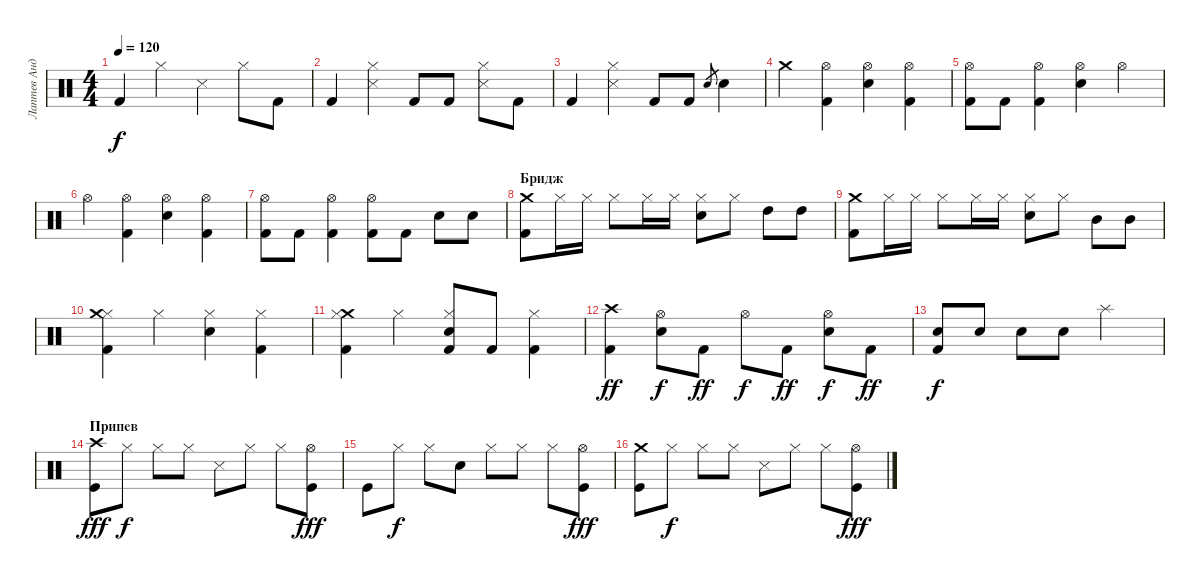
\track ("Лаптев Андрей" "Лаптев Анд") {instrument percussion}
\staff {score}
\articulation defaults
\ts (4 4)
\tempo 120
\clef neutral
\ks c "Kick (hit) 2".4{dy f} "Hi-Hat (closed)".4 "Snare (side stick) 3".4 "Hi-Hat (closed)".8 "Kick (hit) 2".8
|
"Kick (hit) 2".4 ("Snare (side stick) 3" "Hi-Hat (closed)").4 "Kick (hit) 2".8 "Kick (hit) 2".8 ("Snare (side stick) 3" "Hi-Hat (closed)").8 "Kick (hit) 2".8 |
"Kick (hit) 2".4 ("Snare (side stick) 3" "Hi-Hat (closed)").4 "Kick (hit) 2".8 "Kick (hit) 2".8 "Electric Snare (hit)".8{gr} "Electric Snare (hit)".4 |
"Crash medium (hit)".4 ("Hi-Hat (open)" "Kick (hit) 2").4 ("Hi-Hat (open)" "Electric Snare (hit)").4 ("Hi-Hat (open)" "Kick (hit) 2").4 |
("Hi-Hat (open)" "Kick (hit) 2").8 "Kick (hit) 2".8 ("Hi-Hat (open)" "Kick (hit) 2").4 ("Hi-Hat (open)" "Electric Snare (hit)").4 "Hi-Hat (open)".4 |
"Hi-Hat (open)".4 ("Hi-Hat (open)" "Kick (hit) 2").4 ("Hi-Hat (open)" "Electric Snare (hit)").4 ("Hi-Hat (open)" "Kick (hit) 2").4 |
("Hi-Hat (open)" "Kick (hit) 2").8 "Kick (hit) 2".8 ("Hi-Hat (open)" "Kick (hit) 2").4 ("Hi-Hat (open)" "Kick (hit) 2").8 "Kick (hit) 2".8 "Electric Snare (hit)".8 "Electric Snare (hit)".8 |
\section ("" "Бридж")
("Crash medium (hit)" "Kick (hit) 2").8 "Hi-Hat (closed)".16 "Hi-Hat (closed)".16 "Hi-Hat (closed)".8 "Hi-Hat (closed)".16 "Hi-Hat (closed)".16 ("Hi-Hat (closed)" "Electric Snare (hit)").8 "Hi-Hat (closed)".8 "High Tom (hit)".8 "High Tom (hit)".8 |
("Crash medium (hit)" "Kick (hit) 2").8 "Hi-Hat (closed)".16 "Hi-Hat (closed)".16 "Hi-Hat (closed)".8 "Hi-Hat (closed)".16 "Hi-Hat (closed)".16 ("Hi-Hat (closed)" "Electric Snare (hit)").8 "Hi-Hat (closed)".8 "Mid Tom (hit)".8 "Mid Tom (hit)".8 |
("Hi-Hat (closed)" "Crash medium (hit)" "Kick (hit) 2").4 "Hi-Hat (closed)".4 ("Hi-Hat (closed)" "Electric Snare (hit)").4 ("Kick (hit) 2" "Hi-Hat (closed)").4 |
("Crash medium (hit)" "Kick (hit) 2" "Hi-Hat (closed)").4 "Hi-Hat (closed)".4 ("Hi-Hat (closed)" "Electric Snare (hit)" "Kick (hit) 2").8 "Kick (hit) 2".8 ("Kick (hit) 2" "Hi-Hat (closed)").4 |
("Crash high (hit)" "Kick (hit) 2").4{dy ff} ("Hi-Hat (open)" "Electric Snare (hit)").8{dy f} "Kick (hit) 2".8{dy ff} "Hi-Hat (open)".8{dy f} "Kick (hit) 2".8{dy ff} ("Hi-Hat (open)" "Electric Snare (hit)").8{dy f} "Kick (hit) 2".8{dy ff} |
("Electric Snare (hit)" "Kick (hit) 2").8{dy f} "Electric Snare (hit)".8 "Electric Snare (hit)".8 "Electric Snare (hit)".8 "Splash (hit)".2 |
\section ("" "Припев")
("Kick (hit)" "Crash high (hit)").8{dy fff} "Hi-Hat (closed)".8{dy f} "Hi-Hat (closed)".8 "Hi-Hat (closed)".8 "Snare (side stick) 3".8 "Hi-Hat (closed)".8 "Hi-Hat (closed)".8 ("Hi-Hat (open)" "Kick (hit)").8{dy fff} |
"Kick (hit)".8 "Hi-Hat (closed)".8{dy f} "Hi-Hat (closed)".8 "Snare (hit) 2".8 "Hi-Hat (closed)".8 "Hi-Hat (closed)".8 "Hi-Hat (closed)".8 ("Kick (hit)" "Hi-Hat (open)").8{dy fff} |
("Kick (hit)" "Crash medium (hit)").8 "Hi-Hat (closed)".8{dy f} "Hi-Hat (closed)".8 "Hi-Hat (closed)".8 "Snare (side stick) 3".8 "Hi-Hat (closed)".8 "Hi-Hat (closed)".8 ("Kick (hit)" "Hi-Hat (open)").8{dy fff}
